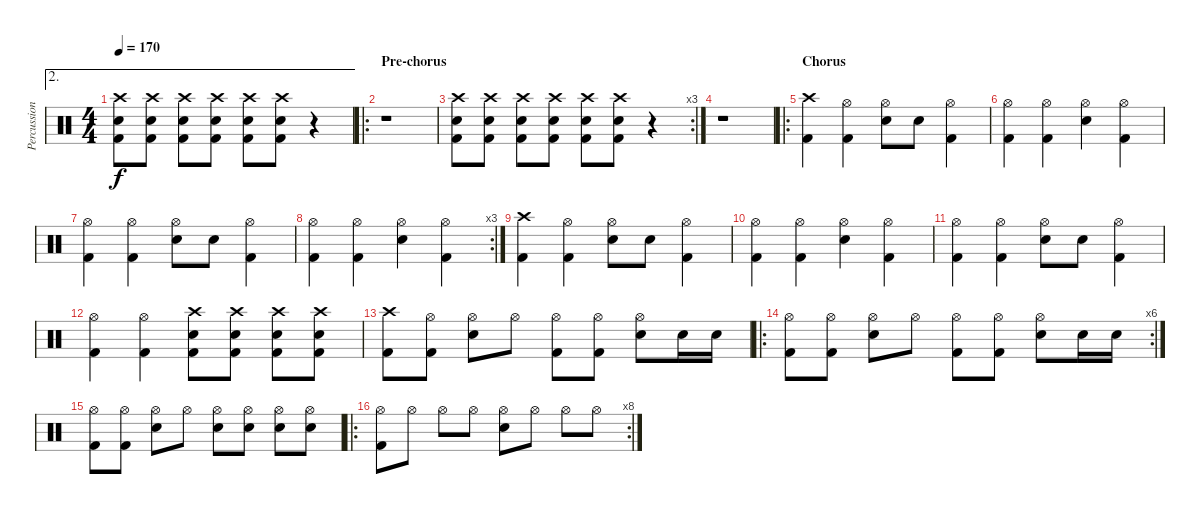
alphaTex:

\track ("Percussion" "Percussion") {instrument percussion}
\staff {score}
\articulation defaults
\ae 2
\ts (4 4)
\tempo 170
\clef neutral
\ks c
("Crash high (hit)" "Electric Snare (hit)" "Kick (hit) 2").8{dy f} ("Crash high (hit)" "Electric Snare (hit)" "Kick (hit) 2").8 ("Crash high (hit)" "Electric Snare (hit)" "Kick (hit) 2").8 ("Crash high (hit)" "Electric Snare (hit)" "Kick (hit) 2").8 ("Crash high (hit)" "Electric Snare (hit)" "Kick (hit) 2").8 ("Crash high (hit)" "Electric Snare (hit)" "Kick (hit) 2").8 r.4 |
\ro
\section ("" "Pre-chorus")
r.1 |
\rc 3
("Crash high (hit)" "Electric Snare (hit)" "Kick (hit) 2").8 ("Crash high (hit)" "Electric Snare (hit)" "Kick (hit) 2").8 ("Crash high (hit)" "Electric Snare (hit)" "Kick (hit) 2").8 ("Crash high (hit)" "Electric Snare (hit)" "Kick (hit) 2").8 ("Crash high (hit)" "Electric Snare (hit)" "Kick (hit) 2").8 ("Crash high (hit)" "Electric Snare (hit)" "Kick (hit) 2").8 r.4 |
r.1 |
\ro
\section ("" "Chorus")
("Crash high (hit)" "Kick (hit) 2").4 ("Hi-Hat (open)" "Kick (hit) 2").4 ("Hi-Hat (open)" "Electric Snare (hit)").8 "Electric Snare (hit)".8 ("Hi-Hat (open)" "Kick (hit) 2").4 |
("Hi-Hat (open)" "Kick (hit) 2").4 ("Hi-Hat (open)" "Kick (hit) 2").4 ("Hi-Hat (open)" "Electric Snare (hit)").4 ("Hi-Hat (open)" "Kick (hit) 2").4 |
("Hi-Hat (open)" "Kick (hit) 2").4 ("Hi-Hat (open)" "Kick (hit) 2").4 ("Hi-Hat (open)" "Electric Snare (hit)").8 "Electric Snare (hit)".8 ("Hi-Hat (open)" "Kick (hit) 2").4 |
\rc 3
("Hi-Hat (open)" "Kick (hit) 2").4 ("Hi-Hat (open)" "Kick (hit) 2").4 ("Hi-Hat (open)" "Electric Snare (hit)").4 ("Hi-Hat (open)" "Kick (hit) 2").4 |
("Crash high (hit)" "Kick (hit) 2").4 ("Hi-Hat (open)" "Kick (hit) 2").4 ("Hi-Hat (open)" "Electric Snare (hit)").8 "Electric Snare (hit)".8 ("Hi-Hat (open)" "Kick (hit) 2").4 |
("Hi-Hat (open)" "Kick (hit) 2").4 ("Hi-Hat (open)" "Kick (hit) 2").4 ("Hi-Hat (open)" "Electric Snare (hit)").4 ("Hi-Hat (open)" "Kick (hit) 2").4 |
("Hi-Hat (open)" "Kick (hit) 2").4 ("Hi-Hat (open)" "Kick (hit) 2").4 ("Hi-Hat (open)" "Electric Snare (hit)").8 "Electric Snare (hit)".8 ("Hi-Hat (open)" "Kick (hit) 2").4 |
("Hi-Hat (open)" "Kick (hit) 2").4 ("Hi-Hat (open)" "Kick (hit) 2").4 ("Crash high (hit)" "Electric Snare (hit)" "Kick (hit) 2").8 ("Crash high (hit)" "Electric Snare (hit)" "Kick (hit) 2").8 ("Crash high (hit)" "Electric Snare (hit)" "Kick (hit) 2").8 ("Crash high (hit)" "Electric Snare (hit)" "Kick (hit) 2").8 |
("Crash high (hit)" "Kick (hit) 2").8 ("Hi-Hat (open)" "Kick (hit) 2").8 ("Hi-Hat (open)" "Electric Snare (hit)").8 "Hi-Hat (open)".8 ("Hi-Hat (open)" "Kick (hit) 2").8 ("Hi-Hat (open)" "Kick (hit) 2").8 ("Hi-Hat (open)" "Electric Snare (hit)").8 "Electric Snare (hit)".16 "Electric Snare (hit)".16 |
\ro
\rc 6
("Hi-Hat (open)" "Kick (hit) 2").8 ("Hi-Hat (open)" "Kick (hit) 2").8 ("Hi-Hat (open)" "Electric Snare (hit)").8 "Hi-Hat (open)".8 ("Hi-Hat (open)" "Kick (hit) 2").8 ("Hi-Hat (open)" "Kick (hit) 2").8 ("Hi-Hat (open)" "Electric Snare (hit)").8 "Electric Snare (hit)".16 "Electric Snare (hit)".16 |
("Hi-Hat (open)" "Kick (hit) 2").8 ("Hi-Hat (open)" "Kick (hit) 2").8 ("Hi-Hat (open)" "Electric Snare (hit)").8 "Hi-Hat (open)".8 ("Hi-Hat (open)" "Electric Snare (hit)").8 ("Hi-Hat (open)" "Electric Snare (hit)").8 ("Hi-Hat (open)" "Electric Snare (hit)").8 ("Hi-Hat (open)" "Electric Snare (hit)").8 |
\ro
\rc 8
("Hi-Hat (open)" "Kick (hit) 2").8 "Hi-Hat (open)".8 "Hi-Hat (open)".8 "Hi-Hat (open)".8 ("Hi-Hat (open)" "Electric Snare (hit)").8 "Hi-Hat (open)".8 "Hi-Hat (open)".8 "Hi-Hat (open)".8
